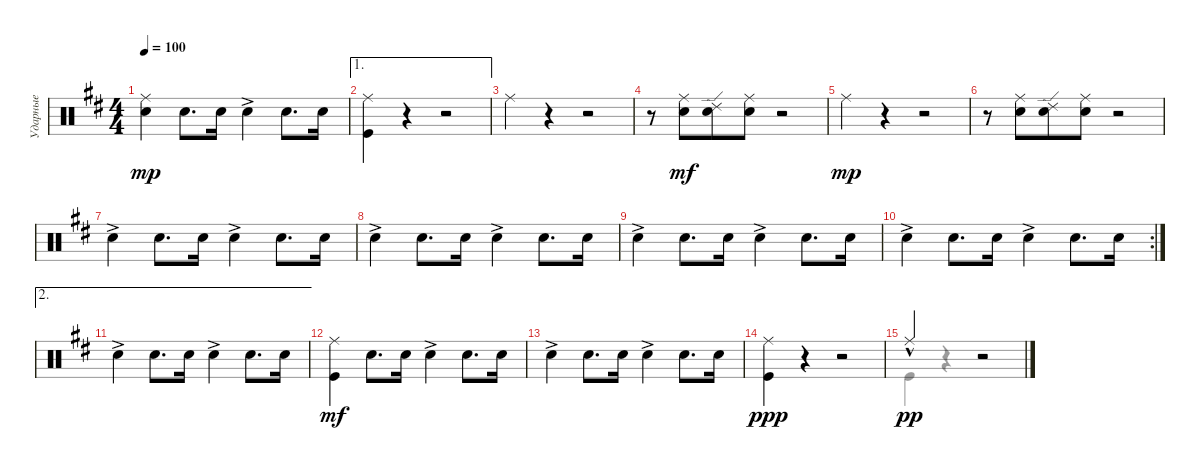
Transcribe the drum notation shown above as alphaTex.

\track ("Ударные" "Ударные") {instrument percussion}
\staff {score}
\articulation defaults
\voice
\ts (4 4)
\tempo 100
\clef neutral
\ks d
("Snare (hit) 2" "Ride (middle)").4{dy mp} "Snare (hit) 2".8{d} "Snare (hit) 2".16 "Snare (hit) 2"{ac}.4 "Snare (hit) 2".8{d} "Snare (hit) 2".16 |
\ae 1
("Kick (hit)" "Ride (middle)").4 r.4 r.2 |
"Ride (middle)".4 r.4 r.2 |
r.8 ("Snare (hit) 2" "Ride (middle)").8{dy mf beam merge} ("Ride (edge) 2" "Snare (hit) 2").8 ("Snare (hit) 2" "Ride (middle)").8 r.2 |
"Ride (middle)".4{dy mp} r.4 r.2 |
r.8 ("Snare (hit) 2" "Ride (middle)").8{beam merge} ("Ride (edge) 2" "Snare (hit) 2").8 ("Snare (hit) 2" "Ride (middle)").8 r.2 |
"Snare (hit) 2"{ac}.4 "Snare (hit) 2".8{d} "Snare (hit) 2".16 "Snare (hit) 2"{ac}.4 "Snare (hit) 2".8{d} "Snare (hit) 2".16 |
"Snare (hit) 2"{ac}.4 "Snare (hit) 2".8{d} "Snare (hit) 2".16 "Snare (hit) 2"{ac}.4 "Snare (hit) 2".8{d} "Snare (hit) 2".16 |
"Snare (hit) 2"{ac}.4 "Snare (hit) 2".8{d} "Snare (hit) 2".16 "Snare (hit) 2"{ac}.4 "Snare (hit) 2".8{d} "Snare (hit) 2".16 |
\rc 2 "Snare (hit) 2"{ac}.4 "Snare (hit) 2".8{d} "Snare (hit) 2".16 "Snare (hit) 2"{ac}.4 "Snare (hit) 2".8{d} "Snare (hit) 2".16
|
\ae 2 "Snare (hit) 2"{ac}.4 "Snare (hit) 2".8{d} "Snare (hit) 2".16 "Snare (hit) 2"{ac}.4 "Snare (hit) 2".8{d} "Snare (hit) 2".16
|
("Kick (hit)" "Ride (middle)").4{dy mf} "Snare (hit) 2".8{d} "Snare (hit) 2".16 "Snare (hit) 2"{ac}.4 "Snare (hit) 2".8{d} "Snare (hit) 2".16 |
"Snare (hit) 2"{ac}.4 "Snare (hit) 2".8{d} "Snare (hit) 2".16 "Snare (hit) 2"{ac}.4 "Snare (hit) 2".8{d} "Snare (hit) 2".16 |
("Kick (hit)" "Ride (middle)").4{dy ppp} r.4 r.2 |
"Ride (middle)"{hac}.2{dy pp} r.2 |
\voice
\clef neutral
\ottava regular
\simile none
\ks d
|
|
|
|
|
|
|
|
|
|
|
|
|
|
"Kick (hit)".4 r.4 r.2 |
